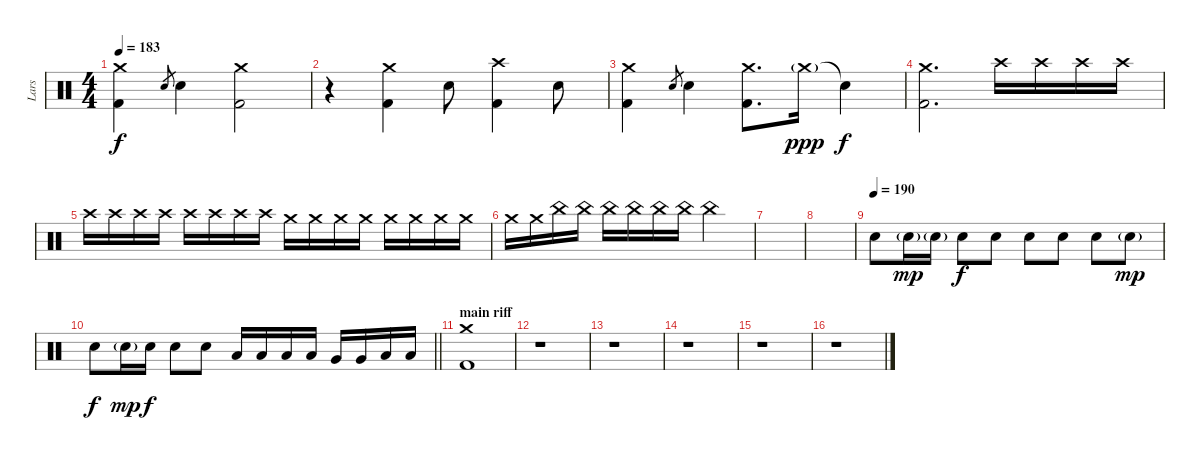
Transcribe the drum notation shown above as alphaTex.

\track ("Lars" "Lars") {instrument percussion}
\staff {score}
\articulation defaults
\ts (4 4)
\tempo 183
\clef neutral
\ks c
("Crash medium (hit)" "Kick (hit) 2").4{dy f} "Snare (hit) 2".8{gr} "Snare (hit) 2".4 ("Crash medium (hit)" "Kick (hit) 2").2 |
r.4 ("Crash medium (hit)" "Kick (hit) 2").4 "Snare (hit) 2".8 ("Crash high (hit)" "Kick (hit) 2").4 "Snare (hit) 2".8 |
("Crash medium (hit)" "Kick (hit) 2").4 "Snare (hit) 2".8{gr} "Snare (hit) 2".4 ("Crash medium (hit)" "Kick (hit) 2").8{d} "Crash medium (hit)"{g}.16{dy ppp} "Snare (hit)"{t}.4{dy f} |
("Crash medium (hit)" "Kick (hit) 2").2{d} "Crash high (hit)".16 "Crash high (hit)".16 "Crash high (hit)".16 "Crash high (hit)".16 |
"Crash high (hit)".16 "Crash high (hit)".16 "Crash high (hit)".16 "Crash high (hit)".16 "Crash high (hit)".16 "Crash high (hit)".16 "Crash high (hit)".16 "Crash high (hit)".16 "Crash medium (hit)".16 "Crash medium (hit)".16 "Crash medium (hit)".16 "Crash medium (hit)".16 "Crash medium (hit)".16 "Crash medium (hit)".16 "Crash medium (hit)".16 "Crash medium (hit)".16 |
"Crash medium (hit)".16 "Crash medium (hit)".16 "China (hit)".16 "China (hit)".16 "China (hit)".16 "China (hit)".16 "China (hit)".16 "China (hit)".16 "China (hit)".2 |
|
|
\tempo (190)
"Snare (hit) 2".8 "Snare (hit) 2"{g}.16{dy mp} "Snare (hit) 2"{g}.16 "Snare (hit) 2".8{dy f} "Snare (hit) 2".8 "Snare (hit) 2".8 "Snare (hit) 2".8 "Snare (hit) 2".8 "Snare (hit) 2"{g}.8{dy mp} |
\barLineRight lightlight "Snare (hit) 2".8{dy f} "Snare (hit) 2"{g}.16{dy mp} "Snare (hit) 2".16{dy f} "Snare (hit) 2".8 "Snare (hit) 2".8 "Low Tom (hit)".16 "Low Tom (hit)".16 "Low Tom (hit)".16 "Low Tom (hit)".16 "Very Low Tom (hit)".16 "Very Low Tom (hit)".16 "Low Floor Tom (hit)".16 "Low Floor Tom (hit)".16
|
\section ("" "main riff")
("Crash medium (hit)" "Kick (hit) 2").1 |
r.1 |
r.1 |
r.1 |
r.1 |
r.1
